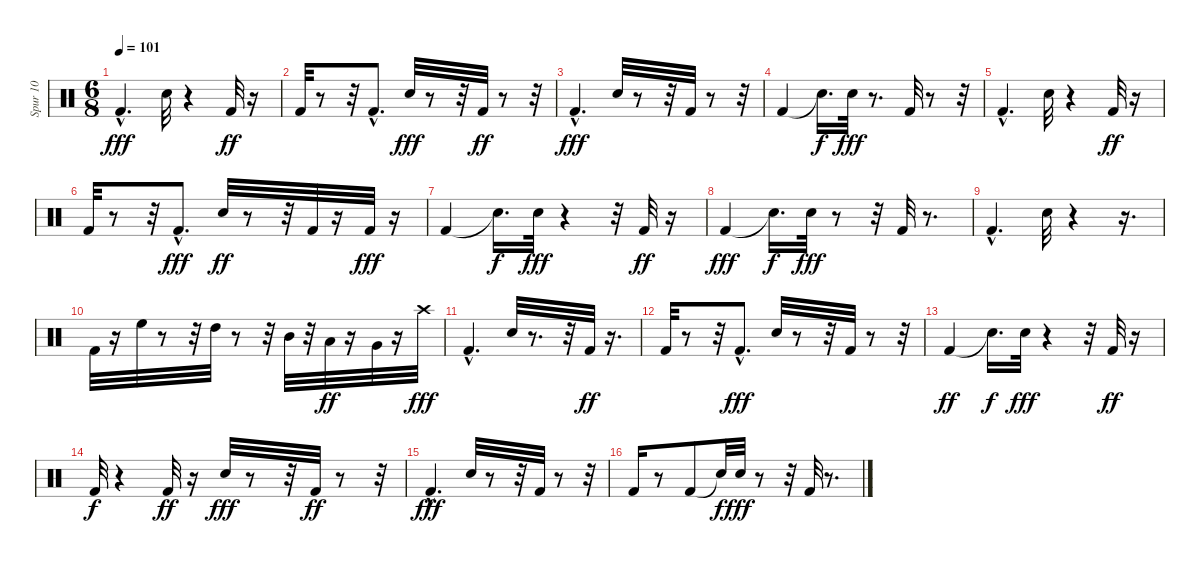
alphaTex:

\track ("Spur 10" "Spur 10") {instrument percussion}
\staff {score}
\articulation defaults
\ts (6 8)
\tempo 101
\clef neutral
\ks c "Kick (hit) 2"{hac}.4{d dy fff} "Electric Snare (hit)".32
r.4 "Kick (hit) 2".32{dy ff} r.16 |
"Kick (hit) 2".32 r.8 r.32 "Kick (hit) 2"{hac}.8{d} "Electric Snare (hit)".32{dy fff} r.8 r.32 "Kick (hit) 2".32{dy ff} r.8 r.32 |
"Kick (hit) 2"{hac}.4{d dy fff} "Electric Snare (hit)".32 r.8 r.32 "Kick (hit) 2".32 r.8 r.32 |
"Kick (hit) 2".4 "Snare (hit)"{t}.16{d dy f} "Electric Snare (hit)".32{dy fff} r.8{d} "Kick (hit) 2".32 r.8 r.32 |
"Kick (hit) 2"{hac}.4{d} "Electric Snare (hit)".32 r.4 "Kick (hit) 2".32{dy ff} r.16 |
"Kick (hit) 2".32 r.8 r.32 "Kick (hit) 2"{hac}.8{d dy fff} "Electric Snare (hit)".32{dy ff} r.8 r.32 "Kick (hit) 2".32 r.16 "Kick (hit) 2".32{dy fff} r.16 |
"Kick (hit) 2".4 "Snare (hit)"{t}.16{d dy f} "Electric Snare (hit)".32{dy fff} r.4 r.32 "Kick (hit) 2".32{dy ff} r.16 |
"Kick (hit) 2".4{dy fff} "Snare (hit)"{t}.16{d dy f} "Electric Snare (hit)".32{dy fff} r.8 r.32 "Kick (hit) 2".32 r.8{d} |
"Kick (hit) 2"{hac}.4{d} "Electric Snare (hit)".32 r.4 r.16{d} |
"Kick (hit) 2".32 r.16 "High Floor Tom (hit)".32 r.8 r.32 "High Tom (hit)".32 r.8 r.32 "Mid Tom (hit)".32 r.32 "Low Tom (hit)".32{dy ff} r.16 "Very Low Tom (hit)".32 r.16 "Crash high (hit)".32{dy fff} |
"Kick (hit) 2"{hac}.4{d} "Electric Snare (hit)".32 r.8{d} r.32 "Kick (hit) 2".32{dy ff} r.16{d} |
"Kick (hit) 2".32 r.8 r.32 "Kick (hit) 2"{hac}.8{d dy fff} "Electric Snare (hit)".32 r.8 r.32 "Kick (hit) 2".32 r.8 r.32 |
"Kick (hit) 2".4{dy ff} "Snare (hit)"{t}.16{d dy f} "Electric Snare (hit)".32{dy fff} r.4 r.32 "Kick (hit) 2".32{dy ff} r.16 |
"Kick (hit) 2".32{dy f} r.4 "Kick (hit) 2".32{dy ff} r.16 "Electric Snare (hit)".32{dy fff} r.8 r.32 "Kick (hit) 2".32{dy ff} r.8 r.32 |
"Kick (hit) 2"{hac}.4{d dy fff} "Electric Snare (hit)".32 r.8 r.32 "Kick (hit) 2".32 r.8 r.32 |
"Kick (hit) 2".16 r.8 "Kick (hit) 2".8 "Snare (hit)"{t}.32{dy f} "Electric Snare (hit)".32{dy fff} r.8 r.32 "Kick (hit) 2".32 r.8{d}
